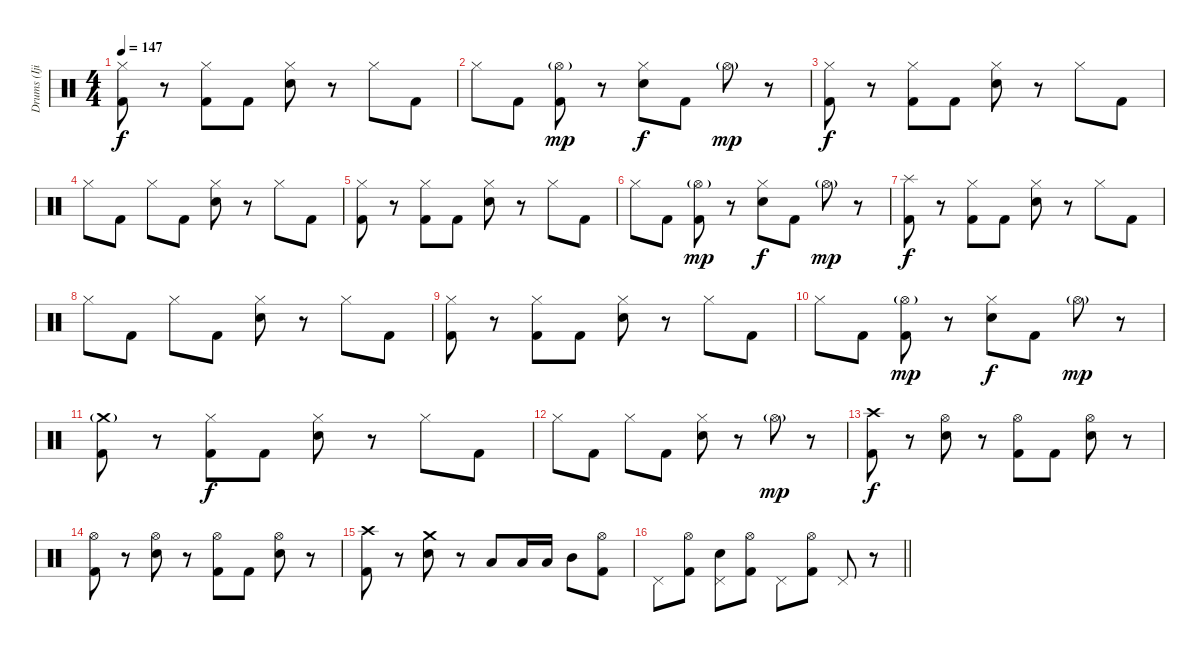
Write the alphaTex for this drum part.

\track ("Drums (Ijichi)" "Drums (Iji") {instrument percussion}
\staff {score}
\articulation defaults
\ts (4 4)
\tempo 147
\clef neutral
\ks c
("Hi-Hat (closed)" "Kick (hit) 2").8{dy f} r.8 ("Hi-Hat (closed)" "Kick (hit) 2").8 "Kick (hit) 2".8 ("Hi-Hat (closed)" "Snare (hit) 2").8 r.8 "Hi-Hat (closed)".8 "Kick (hit) 2".8 |
"Hi-Hat (closed)".8 "Kick (hit) 2".8 ("Hi-Hat (open)"{g} "Kick (hit) 2").8{dy mp} r.8 ("Hi-Hat (closed)" "Snare (hit) 2").8{dy f} "Kick (hit) 2".8 "Hi-Hat (open)"{g}.8{dy mp} r.8 |
("Hi-Hat (closed)" "Kick (hit) 2").8{dy f} r.8 ("Hi-Hat (closed)" "Kick (hit) 2").8 "Kick (hit) 2".8 ("Hi-Hat (closed)" "Snare (hit) 2").8 r.8 "Hi-Hat (closed)".8 "Kick (hit) 2".8 |
"Hi-Hat (closed)".8 "Kick (hit) 2".8 "Hi-Hat (closed)".8 "Kick (hit) 2".8 ("Hi-Hat (closed)" "Snare (hit) 2").8 r.8 "Hi-Hat (closed)".8 "Kick (hit) 2".8 |
("Hi-Hat (closed)" "Kick (hit) 2").8 r.8 ("Hi-Hat (closed)" "Kick (hit) 2").8 "Kick (hit) 2".8 ("Hi-Hat (closed)" "Snare (hit) 2").8 r.8 "Hi-Hat (closed)".8 "Kick (hit) 2".8 |
"Hi-Hat (closed)".8 "Kick (hit) 2".8 ("Hi-Hat (open)"{g} "Kick (hit) 2").8{dy mp} r.8 ("Hi-Hat (closed)" "Snare (hit) 2").8{dy f} "Kick (hit) 2".8 "Hi-Hat (open)"{g}.8{dy mp} r.8 |
("Splash (hit)" "Kick (hit) 2").8{dy f} r.8 ("Hi-Hat (closed)" "Kick (hit) 2").8 "Kick (hit) 2".8 ("Hi-Hat (closed)" "Snare (hit) 2").8 r.8 "Hi-Hat (closed)".8 "Kick (hit) 2".8 |
"Hi-Hat (closed)".8 "Kick (hit) 2".8 "Hi-Hat (closed)".8 "Kick (hit) 2".8 ("Hi-Hat (closed)" "Snare (hit) 2").8 r.8 "Hi-Hat (closed)".8 "Kick (hit) 2".8 |
("Hi-Hat (closed)" "Kick (hit) 2").8 r.8 ("Hi-Hat (closed)" "Kick (hit) 2").8 "Kick (hit) 2".8 ("Hi-Hat (closed)" "Snare (hit) 2").8 r.8 "Hi-Hat (closed)".8 "Kick (hit) 2".8 |
"Hi-Hat (closed)".8 "Kick (hit) 2".8 ("Hi-Hat (open)"{g} "Kick (hit) 2").8{dy mp} r.8 ("Hi-Hat (closed)" "Snare (hit) 2").8{dy f} "Kick (hit) 2".8 "Hi-Hat (open)"{g}.8{dy mp} r.8 |
("Crash medium (hit)"{g} "Kick (hit) 2").8 r.8 ("Hi-Hat (closed)" "Kick (hit) 2").8{dy f} "Kick (hit) 2".8 ("Hi-Hat (closed)" "Snare (hit) 2").8 r.8 "Hi-Hat (closed)".8 "Kick (hit) 2".8 |
"Hi-Hat (closed)".8 "Kick (hit) 2".8 "Hi-Hat (closed)".8 "Kick (hit) 2".8 ("Hi-Hat (closed)" "Snare (hit) 2").8 r.8 "Hi-Hat (open)"{g}.8{dy mp} r.8 |
("Crash high (hit)" "Kick (hit) 2").8{dy f} r.8 ("Hi-Hat (open)" "Snare (hit) 2").8 r.8 ("Hi-Hat (open)" "Kick (hit) 2").8 "Kick (hit) 2".8 ("Hi-Hat (open)" "Snare (hit) 2").8 r.8 |
("Hi-Hat (open)" "Kick (hit) 2").8 r.8 ("Hi-Hat (open)" "Snare (hit) 2").8 r.8 ("Hi-Hat (open)" "Kick (hit) 2").8 "Kick (hit) 2".8 ("Hi-Hat (open)" "Snare (hit) 2").8 r.8 |
("Crash high (hit)" "Kick (hit) 2").8 r.8 ("Crash medium (hit)" "Snare (hit) 2").8 r.8 "Low Tom (hit)".8 "Low Tom (hit)".16 "Low Tom (hit)".16 "Mid Tom (hit)".8 ("Hi-Hat (open)" "Kick (hit) 2").8 |
\barLineRight lightlight "Pedal Hi-Hat (hit)".8
("Hi-Hat (open)" "Kick (hit) 2").8 ("Pedal Hi-Hat (hit)" "Snare (hit) 2").8 ("Hi-Hat (open)" "Kick (hit) 2").8 "Pedal Hi-Hat (hit)".8 ("Hi-Hat (open)" "Kick (hit) 2").8 "Pedal Hi-Hat (hit)".8 r.8
